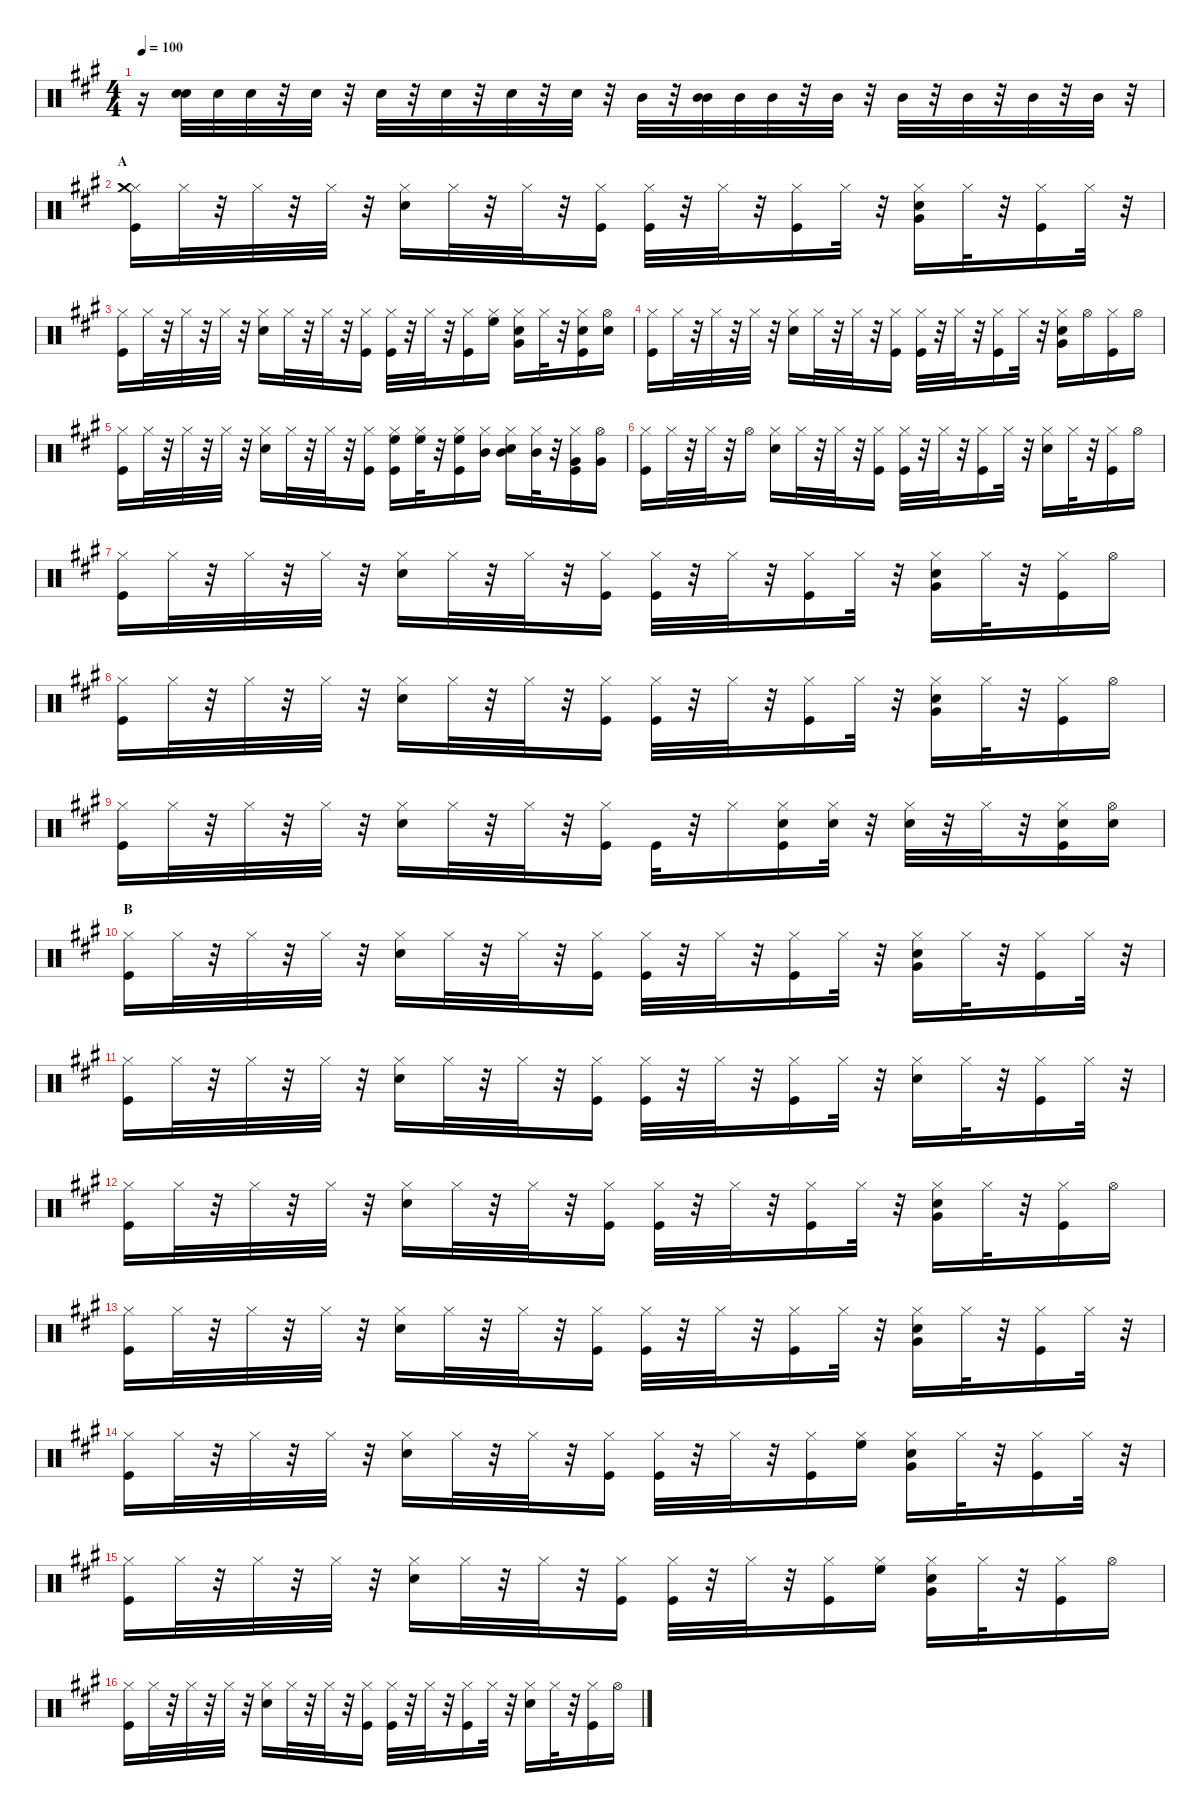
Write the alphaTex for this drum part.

\defaultSystemsLayout 4
\hideDynamics
\bracketExtendMode nobrackets
\singleTrackTrackNamePolicy hidden
\multiTrackTrackNamePolicy hidden
\otherSystemsTrackNameOrientation horizontal
\track ("Percussion" "drm.") {instrument percussion}
\staff {score}
\articulation defaults
\ts (4 4)
\tempo 100
\clef neutral
\ks a
r.16{dy f beam Down} ("Snare (hit) 2"{acc forcenatural} "Snare (hit) 2"{acc forcenatural}).32{beam Down} "Snare (hit) 2"{acc forcenatural}.32{beam Down} "Snare (hit) 2"{acc forcenatural}.32{dy ff beam Down} r.32{beam Down} "Snare (hit) 2"{acc forcenatural}.32{dy f beam Down} r.32{beam Down} "Snare (hit) 2"{acc forcenatural}.32{dy mf beam Down} r.32{beam Down} "Snare (hit) 2"{acc forcenatural}.32{dy f beam Down} r.32{beam Down} "Snare (hit) 2"{acc forcenatural}.32{dy ff beam Down} r.32{beam Down} "Snare (hit) 2"{acc forcenatural}.32{beam Down} r.32{beam Down} "Mid Tom (hit)"{acc forcenatural}.32{dy mp beam Down} r.32{beam Down} ("Mid Tom (hit)"{acc forcenatural} "Mid Tom (hit)"{acc forcenatural}).32{dy f beam Down} "Mid Tom (hit)"{acc forcenatural}.32{beam Down} "Mid Tom (hit)"{acc forcenatural}.32{dy ff beam Down} r.32{beam Down} "Mid Tom (hit)"{acc forcenatural}.32{dy f beam Down} r.32{beam Down} "Mid Tom (hit)"{acc forcenatural}.32{dy mf beam Down} r.32{beam Down} "Mid Tom (hit)"{acc forcenatural}.32{dy f beam Down} r.32{beam Down} "Mid Tom (hit)"{acc forcenatural}.32{dy ff beam Down} r.32{beam Down} "Mid Tom (hit)"{acc forcenatural}.32{beam Down} r.32{beam Down} |
\section ("" "A")
("Kick (hit)"{acc forcenatural} "Hi-Hat (closed)"{acc forcenatural} "Crash medium (hit)"{acc forcenatural}).16{dy f beam Down} "Hi-Hat (closed)"{acc forcenatural}.32{dy mp beam Down} r.32{beam Down} "Hi-Hat (closed)"{acc forcenatural}.32{dy f beam Down} r.32{beam Down} "Hi-Hat (closed)"{acc forcenatural}.32{beam Down} r.32{beam Down} ("Snare (hit) 2"{acc forcenatural} "Hi-Hat (closed)"{acc forcenatural}).16{dy fff beam Down} "Hi-Hat (closed)"{acc forcenatural}.32{dy mp beam Down} r.32{beam Down} "Hi-Hat (closed)"{acc forcenatural}.32{dy f beam Down} r.32{beam Down} ("Kick (hit)"{acc forcenatural} "Hi-Hat (closed)"{acc forcenatural}).16{dy mf beam Down} ("Kick (hit)"{acc forcenatural} "Hi-Hat (closed)"{acc forcenatural}).32{dy f beam Down} r.32{beam Down} "Hi-Hat (closed)"{acc forcenatural}.32{dy mp beam Down} r.32{beam Down} ("Kick (hit)"{acc forcenatural} "Hi-Hat (closed)"{acc forcenatural}).16{dy f beam Down} "Hi-Hat (closed)"{acc forcenatural}.32{beam Down} r.32{beam Down} ("Snare (hit) 2"{acc forcenatural} "Hi-Hat (closed)"{acc forcenatural} "Very Low Tom (hit)"{acc forcenatural}).16{dy fff beam Down} "Hi-Hat (closed)"{acc forcenatural}.32{dy mp beam Down} r.32{beam Down} ("Kick (hit)"{acc forcenatural} "Hi-Hat (closed)"{acc forcenatural}).16{dy f beam Down} "Hi-Hat (closed)"{acc forcenatural}.32{beam Down} r.32{beam Down} |
("Kick (hit)"{acc forcenatural} "Hi-Hat (closed)"{acc forcenatural}).16{beam Down} "Hi-Hat (closed)"{acc forcenatural}.32{dy mp beam Down} r.32{beam Down} "Hi-Hat (closed)"{acc forcenatural}.32{dy f beam Down} r.32{beam Down} "Hi-Hat (closed)"{acc forcenatural}.32{beam Down} r.32{beam Down} ("Snare (hit) 2"{acc forcenatural} "Hi-Hat (closed)"{acc forcenatural}).16{dy fff beam Down} "Hi-Hat (closed)"{acc forcenatural}.32{dy mp beam Down} r.32{beam Down} "Hi-Hat (closed)"{acc forcenatural}.32{dy f beam Down} r.32{beam Down} ("Kick (hit)"{acc forcenatural} "Hi-Hat (closed)"{acc forcenatural}).16{dy mf beam Down} ("Kick (hit)"{acc forcenatural} "Hi-Hat (closed)"{acc forcenatural}).32{dy f beam Down} r.32{beam Down} "Hi-Hat (closed)"{acc forcenatural}.32{dy mp beam Down} r.32{beam Down} ("Kick (hit)"{acc forcenatural} "Hi-Hat (closed)"{acc forcenatural}).16{dy f beam Down} ("Hi-Hat (closed)"{acc forcenatural} "High Floor Tom (hit)"{acc forcenatural}).16{beam Down} ("Snare (hit) 2"{acc forcenatural} "Hi-Hat (closed)"{acc forcenatural} "Very Low Tom (hit)"{acc forcenatural}).16{dy fff beam Down} "Hi-Hat (closed)"{acc forcenatural}.32{dy mp beam Down} r.32{beam Down} ("Kick (hit)"{acc forcenatural} "Snare (hit) 2"{acc forcenatural} "Hi-Hat (closed)"{acc forcenatural}).16{dy f beam Down} ("Snare (hit) 2"{acc forcenatural} "Hi-Hat (open)"{acc forcenatural}).16{beam Down} |
("Kick (hit)"{acc forcenatural} "Hi-Hat (closed)"{acc forcenatural}).16{beam Down} "Hi-Hat (closed)"{acc forcenatural}.32{dy mp beam Down} r.32{beam Down} "Hi-Hat (closed)"{acc forcenatural}.32{dy f beam Down} r.32{beam Down} "Hi-Hat (closed)"{acc forcenatural}.32{beam Down} r.32{beam Down} ("Snare (hit) 2"{acc forcenatural} "Hi-Hat (closed)"{acc forcenatural}).16{dy fff beam Down} "Hi-Hat (closed)"{acc forcenatural}.32{dy mp beam Down} r.32{beam Down} "Hi-Hat (closed)"{acc forcenatural}.32{dy f beam Down} r.32{beam Down} ("Kick (hit)"{acc forcenatural} "Hi-Hat (closed)"{acc forcenatural}).16{dy mf beam Down} ("Kick (hit)"{acc forcenatural} "Hi-Hat (closed)"{acc forcenatural}).32{dy f beam Down} r.32{beam Down} "Hi-Hat (closed)"{acc forcenatural}.32{dy mp beam Down} r.32{beam Down} ("Kick (hit)"{acc forcenatural} "Hi-Hat (closed)"{acc forcenatural}).16{dy f beam Down} "Hi-Hat (closed)"{acc forcenatural}.32{beam Down} r.32{beam Down} ("Snare (hit) 2"{acc forcenatural} "Hi-Hat (closed)"{acc forcenatural} "Very Low Tom (hit)"{acc forcenatural}).16{dy fff beam Down} "Hi-Hat (open)"{acc forcenatural}.16{dy mp beam Down} ("Kick (hit)"{acc forcenatural} "Hi-Hat (closed)"{acc forcenatural}).16{dy f beam Down} "Hi-Hat (open)"{acc forcenatural}.16{beam Down} |
("Kick (hit)"{acc forcenatural} "Hi-Hat (closed)"{acc forcenatural}).16{beam Down} "Hi-Hat (closed)"{acc forcenatural}.32{dy mp beam Down} r.32{beam Down} "Hi-Hat (closed)"{acc forcenatural}.32{dy f beam Down} r.32{beam Down} "Hi-Hat (closed)"{acc forcenatural}.32{beam Down} r.32{beam Down} ("Snare (hit) 2"{acc forcenatural} "Hi-Hat (closed)"{acc forcenatural}).16{dy fff beam Down} "Hi-Hat (closed)"{acc forcenatural}.32{dy mp beam Down} r.32{beam Down} "Hi-Hat (closed)"{acc forcenatural}.32{dy f beam Down} r.32{beam Down} ("Kick (hit)"{acc forcenatural} "Hi-Hat (closed)"{acc forcenatural}).16{dy mf beam Down} ("Kick (hit)"{acc forcenatural} "Hi-Hat (closed)"{acc forcenatural} "High Floor Tom (hit)"{acc forcenatural}).16{dy f beam Down} ("Hi-Hat (closed)"{acc forcenatural} "High Floor Tom (hit)"{acc forcenatural}).32{dy mp beam Down} r.32{beam Down} ("Kick (hit)"{acc forcenatural} "Hi-Hat (closed)"{acc forcenatural} "High Floor Tom (hit)"{acc forcenatural}).16{dy f beam Down} ("Hi-Hat (closed)"{acc forcenatural} "Mid Tom (hit)"{acc forcenatural}).16{beam Down} ("Snare (hit) 2"{acc forcenatural} "Hi-Hat (closed)"{acc forcenatural} "Mid Tom (hit)"{acc forcenatural}).16{dy fff beam Down} ("Hi-Hat (closed)"{acc forcenatural} "Mid Tom (hit)"{acc forcenatural}).32{dy mp beam Down} r.32{beam Down} ("Kick (hit)"{acc forcenatural} "Hi-Hat (closed)"{acc forcenatural} "Very Low Tom (hit)"{acc forcenatural}).16{dy f beam Down} ("Very Low Tom (hit)"{acc forcenatural} "Hi-Hat (open)"{acc forcenatural}).16{beam Down} |
("Kick (hit)"{acc forcenatural} "Hi-Hat (closed)"{acc forcenatural}).16{beam Down} "Hi-Hat (closed)"{acc forcenatural}.32{dy mp beam Down} r.32{beam Down} "Hi-Hat (closed)"{acc forcenatural}.32{dy f beam Down} r.32{beam Down} "Hi-Hat (open)"{acc forcenatural}.16{beam Down} ("Snare (hit) 2"{acc forcenatural} "Hi-Hat (closed)"{acc forcenatural}).16{dy fff beam Down} "Hi-Hat (closed)"{acc forcenatural}.32{dy mp beam Down} r.32{beam Down} "Hi-Hat (closed)"{acc forcenatural}.32{dy f beam Down} r.32{beam Down} ("Kick (hit)"{acc forcenatural} "Hi-Hat (closed)"{acc forcenatural}).16{dy mf beam Down} ("Kick (hit)"{acc forcenatural} "Hi-Hat (closed)"{acc forcenatural}).32{dy f beam Down} r.32{beam Down} "Hi-Hat (closed)"{acc forcenatural}.32{dy mp beam Down} r.32{beam Down} ("Kick (hit)"{acc forcenatural} "Hi-Hat (closed)"{acc forcenatural}).16{dy f beam Down} "Hi-Hat (closed)"{acc forcenatural}.32{beam Down} r.32{beam Down} ("Snare (hit) 2"{acc forcenatural} "Hi-Hat (closed)"{acc forcenatural}).16{dy fff beam Down} "Hi-Hat (closed)"{acc forcenatural}.32{dy mp beam Down} r.32{beam Down} ("Kick (hit)"{acc forcenatural} "Hi-Hat (closed)"{acc forcenatural}).16{dy f beam Down} "Hi-Hat (open)"{acc forcenatural}.16{beam Down} |
("Kick (hit)"{acc forcenatural} "Hi-Hat (closed)"{acc forcenatural}).16{beam Down} "Hi-Hat (closed)"{acc forcenatural}.32{dy mp beam Down} r.32{beam Down} "Hi-Hat (closed)"{acc forcenatural}.32{dy f beam Down} r.32{beam Down} "Hi-Hat (closed)"{acc forcenatural}.32{beam Down} r.32{beam Down} ("Snare (hit) 2"{acc forcenatural} "Hi-Hat (closed)"{acc forcenatural}).16{dy fff beam Down} "Hi-Hat (closed)"{acc forcenatural}.32{dy mp beam Down} r.32{beam Down} "Hi-Hat (closed)"{acc forcenatural}.32{dy f beam Down} r.32{beam Down} ("Kick (hit)"{acc forcenatural} "Hi-Hat (closed)"{acc forcenatural}).16{dy mf beam Down} ("Kick (hit)"{acc forcenatural} "Hi-Hat (closed)"{acc forcenatural}).32{dy f beam Down} r.32{beam Down} "Hi-Hat (closed)"{acc forcenatural}.32{dy mp beam Down} r.32{beam Down} ("Kick (hit)"{acc forcenatural} "Hi-Hat (closed)"{acc forcenatural}).16{dy f beam Down} "Hi-Hat (closed)"{acc forcenatural}.32{beam Down} r.32{beam Down} ("Snare (hit) 2"{acc forcenatural} "Hi-Hat (closed)"{acc forcenatural} "Very Low Tom (hit)"{acc forcenatural}).16{dy fff beam Down} "Hi-Hat (closed)"{acc forcenatural}.32{dy mp beam Down} r.32{beam Down} ("Kick (hit)"{acc forcenatural} "Hi-Hat (closed)"{acc forcenatural}).16{dy f beam Down} "Hi-Hat (open)"{acc forcenatural}.16{beam Down} |
("Kick (hit)"{acc forcenatural} "Hi-Hat (closed)"{acc forcenatural}).16{beam Down} "Hi-Hat (closed)"{acc forcenatural}.32{dy mp beam Down} r.32{beam Down} "Hi-Hat (closed)"{acc forcenatural}.32{dy f beam Down} r.32{beam Down} "Hi-Hat (closed)"{acc forcenatural}.32{beam Down} r.32{beam Down} ("Snare (hit) 2"{acc forcenatural} "Hi-Hat (closed)"{acc forcenatural}).16{dy fff beam Down} "Hi-Hat (closed)"{acc forcenatural}.32{dy mp beam Down} r.32{beam Down} "Hi-Hat (closed)"{acc forcenatural}.32{dy f beam Down} r.32{beam Down} ("Kick (hit)"{acc forcenatural} "Hi-Hat (closed)"{acc forcenatural}).16{dy mf beam Down} ("Kick (hit)"{acc forcenatural} "Hi-Hat (closed)"{acc forcenatural}).32{dy f beam Down} r.32{beam Down} "Hi-Hat (closed)"{acc forcenatural}.32{dy mp beam Down} r.32{beam Down} ("Kick (hit)"{acc forcenatural} "Hi-Hat (closed)"{acc forcenatural}).16{dy f beam Down} "Hi-Hat (closed)"{acc forcenatural}.32{beam Down} r.32{beam Down} ("Snare (hit) 2"{acc forcenatural} "Hi-Hat (closed)"{acc forcenatural} "Very Low Tom (hit)"{acc forcenatural}).16{dy fff beam Down} "Hi-Hat (closed)"{acc forcenatural}.32{dy mp beam Down} r.32{beam Down} ("Kick (hit)"{acc forcenatural} "Hi-Hat (closed)"{acc forcenatural}).16{dy f beam Down} "Hi-Hat (open)"{acc forcenatural}.16{beam Down} |
("Kick (hit)"{acc forcenatural} "Hi-Hat (closed)"{acc forcenatural}).16{beam Down} "Hi-Hat (closed)"{acc forcenatural}.32{dy mp beam Down} r.32{beam Down} "Hi-Hat (closed)"{acc forcenatural}.32{dy f beam Down} r.32{beam Down} "Hi-Hat (closed)"{acc forcenatural}.32{beam Down} r.32{beam Down} ("Snare (hit) 2"{acc forcenatural} "Hi-Hat (closed)"{acc forcenatural}).16{dy fff beam Down} "Hi-Hat (closed)"{acc forcenatural}.32{dy mp beam Down} r.32{beam Down} "Hi-Hat (closed)"{acc forcenatural}.32{dy f beam Down} r.32{beam Down} ("Kick (hit)"{acc forcenatural} "Hi-Hat (closed)"{acc forcenatural}).16{dy mf beam Down} "Kick (hit)"{acc forcenatural}.32{dy f beam Down} r.32{beam Down} "Hi-Hat (closed)"{acc forcenatural}.16{dy mp beam Down} ("Kick (hit)"{acc forcenatural} "Snare (hit) 2"{acc forcenatural} "Hi-Hat (closed)"{acc forcenatural}).16{dy f beam Down} ("Snare (hit) 2"{acc forcenatural} "Hi-Hat (closed)"{acc forcenatural}).32{beam Down} r.32{beam Down} ("Snare (hit) 2"{acc forcenatural} "Hi-Hat (closed)"{acc forcenatural}).32{dy fff beam Down} r.32{beam Down} "Hi-Hat (closed)"{acc forcenatural}.32{dy mp beam Down} r.32{beam Down} ("Kick (hit)"{acc forcenatural} "Snare (hit) 2"{acc forcenatural} "Hi-Hat (closed)"{acc forcenatural}).16{dy f beam Down} ("Snare (hit) 2"{acc forcenatural} "Hi-Hat (open)"{acc forcenatural}).16{dy ff beam Down} |
\section ("" "B")
("Kick (hit)"{acc forcenatural} "Hi-Hat (closed)"{acc forcenatural}).16{dy f beam Down} "Hi-Hat (closed)"{acc forcenatural}.32{dy mp beam Down} r.32{beam Down} "Hi-Hat (closed)"{acc forcenatural}.32{dy f beam Down} r.32{beam Down} "Hi-Hat (closed)"{acc forcenatural}.32{beam Down} r.32{beam Down} ("Snare (hit) 2"{acc forcenatural} "Hi-Hat (closed)"{acc forcenatural}).16{dy fff beam Down} "Hi-Hat (closed)"{acc forcenatural}.32{dy mp beam Down} r.32{beam Down} "Hi-Hat (closed)"{acc forcenatural}.32{dy f beam Down} r.32{beam Down} ("Kick (hit)"{acc forcenatural} "Hi-Hat (closed)"{acc forcenatural}).16{dy mf beam Down} ("Kick (hit)"{acc forcenatural} "Hi-Hat (closed)"{acc forcenatural}).32{dy f beam Down} r.32{beam Down} "Hi-Hat (closed)"{acc forcenatural}.32{dy mp beam Down} r.32{beam Down} ("Kick (hit)"{acc forcenatural} "Hi-Hat (closed)"{acc forcenatural}).16{dy f beam Down} "Hi-Hat (closed)"{acc forcenatural}.32{beam Down} r.32{beam Down} ("Snare (hit) 2"{acc forcenatural} "Hi-Hat (closed)"{acc forcenatural} "Very Low Tom (hit)"{acc forcenatural}).16{dy fff beam Down} "Hi-Hat (closed)"{acc forcenatural}.32{dy mp beam Down} r.32{beam Down} ("Kick (hit)"{acc forcenatural} "Hi-Hat (closed)"{acc forcenatural}).16{dy f beam Down} "Hi-Hat (closed)"{acc forcenatural}.32{beam Down} r.32{beam Down} |
("Kick (hit)"{acc forcenatural} "Hi-Hat (closed)"{acc forcenatural}).16{beam Down} "Hi-Hat (closed)"{acc forcenatural}.32{dy mp beam Down} r.32{beam Down} "Hi-Hat (closed)"{acc forcenatural}.32{dy f beam Down} r.32{beam Down} "Hi-Hat (closed)"{acc forcenatural}.32{beam Down} r.32{beam Down} ("Snare (hit) 2"{acc forcenatural} "Hi-Hat (closed)"{acc forcenatural}).16{dy fff beam Down} "Hi-Hat (closed)"{acc forcenatural}.32{dy mp beam Down} r.32{beam Down} "Hi-Hat (closed)"{acc forcenatural}.32{dy f beam Down} r.32{beam Down} ("Kick (hit)"{acc forcenatural} "Hi-Hat (closed)"{acc forcenatural}).16{dy mf beam Down} ("Kick (hit)"{acc forcenatural} "Hi-Hat (closed)"{acc forcenatural}).32{dy f beam Down} r.32{beam Down} "Hi-Hat (closed)"{acc forcenatural}.32{dy mp beam Down} r.32{beam Down} ("Kick (hit)"{acc forcenatural} "Hi-Hat (closed)"{acc forcenatural}).16{dy f beam Down} "Hi-Hat (closed)"{acc forcenatural}.32{beam Down} r.32{beam Down} ("Snare (hit) 2"{acc forcenatural} "Hi-Hat (closed)"{acc forcenatural}).16{dy fff beam Down} "Hi-Hat (closed)"{acc forcenatural}.32{dy mp beam Down} r.32{beam Down} ("Kick (hit)"{acc forcenatural} "Hi-Hat (closed)"{acc forcenatural}).16{dy f beam Down} "Hi-Hat (closed)"{acc forcenatural}.32{beam Down} r.32{beam Down} |
("Kick (hit)"{acc forcenatural} "Hi-Hat (closed)"{acc forcenatural}).16{beam Down} "Hi-Hat (closed)"{acc forcenatural}.32{dy mp beam Down} r.32{beam Down} "Hi-Hat (closed)"{acc forcenatural}.32{dy f beam Down} r.32{beam Down} "Hi-Hat (closed)"{acc forcenatural}.32{beam Down} r.32{beam Down} ("Snare (hit) 2"{acc forcenatural} "Hi-Hat (closed)"{acc forcenatural}).16{dy fff beam Down} "Hi-Hat (closed)"{acc forcenatural}.32{dy mp beam Down} r.32{beam Down} "Hi-Hat (closed)"{acc forcenatural}.32{dy f beam Down} r.32{beam Down} ("Kick (hit)"{acc forcenatural} "Hi-Hat (closed)"{acc forcenatural}).16{dy mf beam Down} ("Kick (hit)"{acc forcenatural} "Hi-Hat (closed)"{acc forcenatural}).32{dy f beam Down} r.32{beam Down} "Hi-Hat (closed)"{acc forcenatural}.32{dy mp beam Down} r.32{beam Down} ("Kick (hit)"{acc forcenatural} "Hi-Hat (closed)"{acc forcenatural}).16{dy f beam Down} "Hi-Hat (closed)"{acc forcenatural}.32{beam Down} r.32{beam Down} ("Snare (hit) 2"{acc forcenatural} "Hi-Hat (closed)"{acc forcenatural} "Very Low Tom (hit)"{acc forcenatural}).16{dy fff beam Down} "Hi-Hat (closed)"{acc forcenatural}.32{dy mp beam Down} r.32{beam Down} ("Kick (hit)"{acc forcenatural} "Hi-Hat (closed)"{acc forcenatural}).16{dy f beam Down} "Hi-Hat (open)"{acc forcenatural}.16{beam Down} |
("Kick (hit)"{acc forcenatural} "Hi-Hat (closed)"{acc forcenatural}).16{beam Down} "Hi-Hat (closed)"{acc forcenatural}.32{dy mp beam Down} r.32{beam Down} "Hi-Hat (closed)"{acc forcenatural}.32{dy f beam Down} r.32{beam Down} "Hi-Hat (closed)"{acc forcenatural}.32{beam Down} r.32{beam Down} ("Snare (hit) 2"{acc forcenatural} "Hi-Hat (closed)"{acc forcenatural}).16{dy fff beam Down} "Hi-Hat (closed)"{acc forcenatural}.32{dy mp beam Down} r.32{beam Down} "Hi-Hat (closed)"{acc forcenatural}.32{dy f beam Down} r.32{beam Down} ("Kick (hit)"{acc forcenatural} "Hi-Hat (closed)"{acc forcenatural}).16{dy mf beam Down} ("Kick (hit)"{acc forcenatural} "Hi-Hat (closed)"{acc forcenatural}).32{dy f beam Down} r.32{beam Down} "Hi-Hat (closed)"{acc forcenatural}.32{dy mp beam Down} r.32{beam Down} ("Kick (hit)"{acc forcenatural} "Hi-Hat (closed)"{acc forcenatural}).16{dy f beam Down} "Hi-Hat (closed)"{acc forcenatural}.32{beam Down} r.32{beam Down} ("Snare (hit) 2"{acc forcenatural} "Hi-Hat (closed)"{acc forcenatural} "Very Low Tom (hit)"{acc forcenatural}).16{dy fff beam Down} "Hi-Hat (closed)"{acc forcenatural}.32{dy mp beam Down} r.32{beam Down} ("Kick (hit)"{acc forcenatural} "Hi-Hat (closed)"{acc forcenatural}).16{dy f beam Down} "Hi-Hat (closed)"{acc forcenatural}.32{beam Down} r.32{beam Down} |
("Kick (hit)"{acc forcenatural} "Hi-Hat (closed)"{acc forcenatural}).16{beam Down} "Hi-Hat (closed)"{acc forcenatural}.32{dy mp beam Down} r.32{beam Down} "Hi-Hat (closed)"{acc forcenatural}.32{dy f beam Down} r.32{beam Down} "Hi-Hat (closed)"{acc forcenatural}.32{beam Down} r.32{beam Down} ("Snare (hit) 2"{acc forcenatural} "Hi-Hat (closed)"{acc forcenatural}).16{dy fff beam Down} "Hi-Hat (closed)"{acc forcenatural}.32{dy mp beam Down} r.32{beam Down} "Hi-Hat (closed)"{acc forcenatural}.32{dy f beam Down} r.32{beam Down} ("Kick (hit)"{acc forcenatural} "Hi-Hat (closed)"{acc forcenatural}).16{dy mf beam Down} ("Kick (hit)"{acc forcenatural} "Hi-Hat (closed)"{acc forcenatural}).32{dy f beam Down} r.32{beam Down} "Hi-Hat (closed)"{acc forcenatural}.32{dy mp beam Down} r.32{beam Down} ("Kick (hit)"{acc forcenatural} "Hi-Hat (closed)"{acc forcenatural}).16{dy f beam Down} ("Hi-Hat (closed)"{acc forcenatural} "High Floor Tom (hit)"{acc forcenatural}).16{beam Down} ("Snare (hit) 2"{acc forcenatural} "Hi-Hat (closed)"{acc forcenatural} "Very Low Tom (hit)"{acc forcenatural}).16{dy fff beam Down} "Hi-Hat (closed)"{acc forcenatural}.32{dy mp beam Down} r.32{beam Down} ("Kick (hit)"{acc forcenatural} "Hi-Hat (closed)"{acc forcenatural}).16{dy f beam Down} "Hi-Hat (closed)"{acc forcenatural}.32{beam Down} r.32{beam Down} |
("Kick (hit)"{acc forcenatural} "Hi-Hat (closed)"{acc forcenatural}).16{beam Down} "Hi-Hat (closed)"{acc forcenatural}.32{dy mp beam Down} r.32{beam Down} "Hi-Hat (closed)"{acc forcenatural}.32{dy f beam Down} r.32{beam Down} "Hi-Hat (closed)"{acc forcenatural}.32{beam Down} r.32{beam Down} ("Snare (hit) 2"{acc forcenatural} "Hi-Hat (closed)"{acc forcenatural}).16{dy fff beam Down} "Hi-Hat (closed)"{acc forcenatural}.32{dy mp beam Down} r.32{beam Down} "Hi-Hat (closed)"{acc forcenatural}.32{dy f beam Down} r.32{beam Down} ("Kick (hit)"{acc forcenatural} "Hi-Hat (closed)"{acc forcenatural}).16{dy mf beam Down} ("Kick (hit)"{acc forcenatural} "Hi-Hat (closed)"{acc forcenatural}).32{dy f beam Down} r.32{beam Down} "Hi-Hat (closed)"{acc forcenatural}.32{dy mp beam Down} r.32{beam Down} ("Kick (hit)"{acc forcenatural} "Hi-Hat (closed)"{acc forcenatural}).16{dy f beam Down} ("Hi-Hat (closed)"{acc forcenatural} "High Floor Tom (hit)"{acc forcenatural}).16{beam Down} ("Snare (hit) 2"{acc forcenatural} "Hi-Hat (closed)"{acc forcenatural} "Very Low Tom (hit)"{acc forcenatural}).16{dy fff beam Down} "Hi-Hat (closed)"{acc forcenatural}.32{dy mp beam Down} r.32{beam Down} ("Kick (hit)"{acc forcenatural} "Hi-Hat (closed)"{acc forcenatural}).16{dy f beam Down} "Hi-Hat (open)"{acc forcenatural}.16{beam Down} |
("Kick (hit)"{acc forcenatural} "Hi-Hat (closed)"{acc forcenatural}).16{beam Down} "Hi-Hat (closed)"{acc forcenatural}.32{dy mp beam Down} r.32{beam Down} "Hi-Hat (closed)"{acc forcenatural}.32{dy f beam Down} r.32{beam Down} "Hi-Hat (closed)"{acc forcenatural}.32{beam Down} r.32{beam Down} ("Snare (hit) 2"{acc forcenatural} "Hi-Hat (closed)"{acc forcenatural}).16{dy fff beam Down} "Hi-Hat (closed)"{acc forcenatural}.32{dy mp beam Down} r.32{beam Down} "Hi-Hat (closed)"{acc forcenatural}.32{dy f beam Down} r.32{beam Down} ("Kick (hit)"{acc forcenatural} "Hi-Hat (closed)"{acc forcenatural}).16{dy mf beam Down} ("Kick (hit)"{acc forcenatural} "Hi-Hat (closed)"{acc forcenatural}).32{dy f beam Down} r.32{beam Down} "Hi-Hat (closed)"{acc forcenatural}.32{dy mp beam Down} r.32{beam Down} ("Kick (hit)"{acc forcenatural} "Hi-Hat (closed)"{acc forcenatural}).16{dy f beam Down} "Hi-Hat (closed)"{acc forcenatural}.32{beam Down} r.32{beam Down} ("Snare (hit) 2"{acc forcenatural} "Hi-Hat (closed)"{acc forcenatural}).16{dy fff beam Down} "Hi-Hat (closed)"{acc forcenatural}.32{dy mp beam Down} r.32{beam Down} ("Kick (hit)"{acc forcenatural} "Hi-Hat (closed)"{acc forcenatural}).16{dy f beam Down} "Hi-Hat (open)"{acc forcenatural}.16{beam Down}
